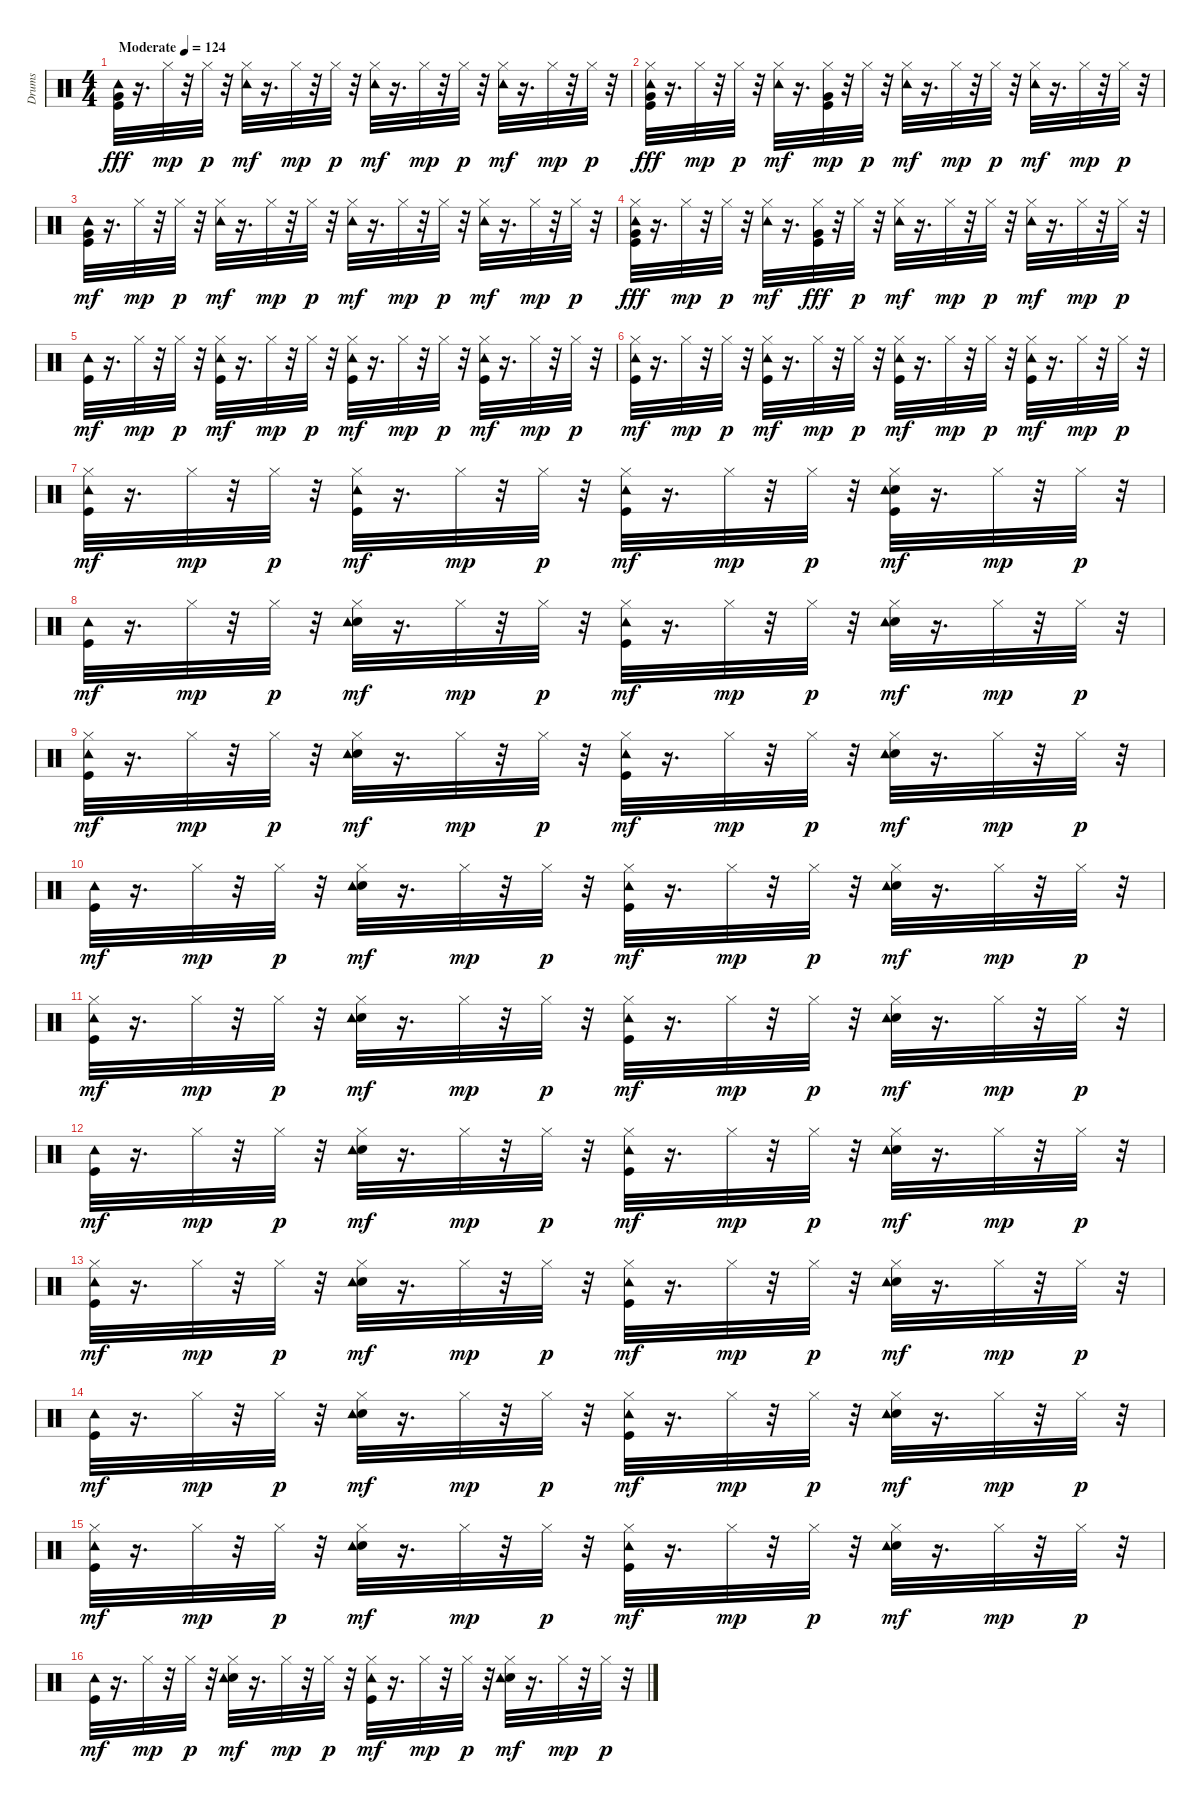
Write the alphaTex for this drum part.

\track ("Drums" "Drums") {instrument percussion}
\staff {score}
\articulation defaults
\ts (4 4)
\tempo (124 "Moderate")
\clef neutral
\ks c
("Very Low Tom (hit)" "Tambourine (hit)" "Kick (hit)").32{dy fff} r.16{d} "Hi-Hat (closed)".32{dy mp} r.32 "Hi-Hat (closed)".32{dy p} r.32 ("Tambourine (hit)" "Hi-Hat (closed)").32{dy mf} r.16{d} "Hi-Hat (closed)".32{dy mp} r.32 "Hi-Hat (closed)".32{dy p} r.32 ("Tambourine (hit)" "Hi-Hat (closed)").32{dy mf} r.16{d} "Hi-Hat (closed)".32{dy mp} r.32 "Hi-Hat (closed)".32{dy p} r.32 ("Hi-Hat (closed)" "Tambourine (hit)").32{dy mf} r.16{d} "Hi-Hat (closed)".32{dy mp} r.32 "Hi-Hat (closed)".32{dy p} r.32 |
("Very Low Tom (hit)" "Tambourine (hit)" "Hi-Hat (closed)" "Kick (hit)").32{dy fff} r.16{d} "Hi-Hat (closed)".32{dy mp} r.32 "Hi-Hat (closed)".32{dy p} r.32 ("Tambourine (hit)" "Hi-Hat (closed)").32{dy mf} r.16{d} ("Kick (hit)" "Very Low Tom (hit)" "Hi-Hat (closed)").32{dy mp} r.32 "Hi-Hat (closed)".32{dy p} r.32 ("Tambourine (hit)" "Hi-Hat (closed)").32{dy mf} r.16{d} "Hi-Hat (closed)".32{dy mp} r.32 "Hi-Hat (closed)".32{dy p} r.32 ("Tambourine (hit)" "Hi-Hat (closed)").32{dy mf} r.16{d} "Hi-Hat (closed)".32{dy mp} r.32 "Hi-Hat (closed)".32{dy p} r.32 |
("Kick (hit)" "Very Low Tom (hit)" "Tambourine (hit)").32{dy mf} r.16{d} "Hi-Hat (closed)".32{dy mp} r.32 "Hi-Hat (closed)".32{dy p} r.32 ("Tambourine (hit)" "Hi-Hat (closed)").32{dy mf} r.16{d} "Hi-Hat (closed)".32{dy mp} r.32 "Hi-Hat (closed)".32{dy p} r.32 ("Tambourine (hit)" "Hi-Hat (closed)").32{dy mf} r.16{d} "Hi-Hat (closed)".32{dy mp} r.32 "Hi-Hat (closed)".32{dy p} r.32 ("Tambourine (hit)" "Hi-Hat (closed)").32{dy mf} r.16{d} "Hi-Hat (closed)".32{dy mp} r.32 "Hi-Hat (closed)".32{dy p} r.32 |
("Very Low Tom (hit)" "Tambourine (hit)" "Hi-Hat (closed)" "Kick (hit)").32{dy fff} r.16{d} "Hi-Hat (closed)".32{dy mp} r.32 "Hi-Hat (closed)".32{dy p} r.32 ("Tambourine (hit)" "Hi-Hat (closed)").32{dy mf} r.16{d} ("Very Low Tom (hit)" "Hi-Hat (closed)" "Kick (hit)").32{dy fff} r.32 "Hi-Hat (closed)".32{dy p} r.32 ("Tambourine (hit)" "Hi-Hat (closed)").32{dy mf} r.16{d} "Hi-Hat (closed)".32{dy mp} r.32 "Hi-Hat (closed)".32{dy p} r.32 ("Tambourine (hit)" "Hi-Hat (closed)").32{dy mf} r.16{d} "Hi-Hat (closed)".32{dy mp} r.32 "Hi-Hat (closed)".32{dy p} r.32 |
("Tambourine (hit)" "Kick (hit)").32{dy mf} r.16{d} "Hi-Hat (closed)".32{dy mp} r.32 "Hi-Hat (closed)".32{dy p} r.32 ("Tambourine (hit)" "Kick (hit)" "Hi-Hat (closed)").32{dy mf} r.16{d} "Hi-Hat (closed)".32{dy mp} r.32 "Hi-Hat (closed)".32{dy p} r.32 ("Kick (hit)" "Tambourine (hit)" "Hi-Hat (closed)").32{dy mf} r.16{d} "Hi-Hat (closed)".32{dy mp} r.32 "Hi-Hat (closed)".32{dy p} r.32 ("Kick (hit)" "Tambourine (hit)" "Hi-Hat (closed)").32{dy mf} r.16{d} "Hi-Hat (closed)".32{dy mp} r.32 "Hi-Hat (closed)".32{dy p} r.32 |
("Tambourine (hit)" "Hi-Hat (closed)" "Kick (hit)").32{dy mf} r.16{d} "Hi-Hat (closed)".32{dy mp} r.32 "Hi-Hat (closed)".32{dy p} r.32 ("Kick (hit)" "Tambourine (hit)" "Hi-Hat (closed)").32{dy mf} r.16{d} "Hi-Hat (closed)".32{dy mp} r.32 "Hi-Hat (closed)".32{dy p} r.32 ("Hi-Hat (closed)" "Kick (hit)" "Tambourine (hit)").32{dy mf} r.16{d} "Hi-Hat (closed)".32{dy mp} r.32 "Hi-Hat (closed)".32{dy p} r.32 ("Kick (hit)" "Tambourine (hit)" "Hi-Hat (closed)").32{dy mf} r.16{d} "Hi-Hat (closed)".32{dy mp} r.32 "Hi-Hat (closed)".32{dy p} r.32 |
("Tambourine (hit)" "Hi-Hat (closed)" "Kick (hit)").32{dy mf} r.16{d} "Hi-Hat (closed)".32{dy mp} r.32 "Hi-Hat (closed)".32{dy p} r.32 ("Kick (hit)" "Tambourine (hit)" "Hi-Hat (closed)").32{dy mf} r.16{d} "Hi-Hat (closed)".32{dy mp} r.32 "Hi-Hat (closed)".32{dy p} r.32 ("Kick (hit)" "Tambourine (hit)" "Hi-Hat (closed)").32{dy mf} r.16{d} "Hi-Hat (closed)".32{dy mp} r.32 "Hi-Hat (closed)".32{dy p} r.32 ("Hi-Hat (closed)" "Snare (hit) 2" "Kick (hit)" "Tambourine (hit)").32{dy mf} r.16{d} "Hi-Hat (closed)".32{dy mp} r.32 "Hi-Hat (closed)".32{dy p} r.32 |
("Tambourine (hit)" "Kick (hit)").32{dy mf} r.16{d} "Hi-Hat (closed)".32{dy mp} r.32 "Hi-Hat (closed)".32{dy p} r.32 ("Snare (hit) 2" "Tambourine (hit)" "Hi-Hat (closed)").32{dy mf} r.16{d} "Hi-Hat (closed)".32{dy mp} r.32 "Hi-Hat (closed)".32{dy p} r.32 ("Tambourine (hit)" "Kick (hit)" "Hi-Hat (closed)").32{dy mf} r.16{d} "Hi-Hat (closed)".32{dy mp} r.32 "Hi-Hat (closed)".32{dy p} r.32 ("Snare (hit) 2" "Tambourine (hit)" "Hi-Hat (closed)").32{dy mf} r.16{d} "Hi-Hat (closed)".32{dy mp} r.32 "Hi-Hat (closed)".32{dy p} r.32 |
("Tambourine (hit)" "Hi-Hat (closed)" "Kick (hit)").32{dy mf} r.16{d} "Hi-Hat (closed)".32{dy mp} r.32 "Hi-Hat (closed)".32{dy p} r.32 ("Snare (hit) 2" "Tambourine (hit)" "Hi-Hat (closed)").32{dy mf} r.16{d} "Hi-Hat (closed)".32{dy mp} r.32 "Hi-Hat (closed)".32{dy p} r.32 ("Kick (hit)" "Tambourine (hit)" "Hi-Hat (closed)").32{dy mf} r.16{d} "Hi-Hat (closed)".32{dy mp} r.32 "Hi-Hat (closed)".32{dy p} r.32 ("Hi-Hat (closed)" "Snare (hit) 2" "Tambourine (hit)").32{dy mf} r.16{d} "Hi-Hat (closed)".32{dy mp} r.32 "Hi-Hat (closed)".32{dy p} r.32 |
("Tambourine (hit)" "Kick (hit)").32{dy mf} r.16{d} "Hi-Hat (closed)".32{dy mp} r.32 "Hi-Hat (closed)".32{dy p} r.32 ("Snare (hit) 2" "Tambourine (hit)" "Hi-Hat (closed)").32{dy mf} r.16{d} "Hi-Hat (closed)".32{dy mp} r.32 "Hi-Hat (closed)".32{dy p} r.32 ("Tambourine (hit)" "Kick (hit)" "Hi-Hat (closed)").32{dy mf} r.16{d} "Hi-Hat (closed)".32{dy mp} r.32 "Hi-Hat (closed)".32{dy p} r.32 ("Snare (hit) 2" "Tambourine (hit)" "Hi-Hat (closed)").32{dy mf} r.16{d} "Hi-Hat (closed)".32{dy mp} r.32 "Hi-Hat (closed)".32{dy p} r.32 |
("Tambourine (hit)" "Kick (hit)" "Hi-Hat (closed)").32{dy mf} r.16{d} "Hi-Hat (closed)".32{dy mp} r.32 "Hi-Hat (closed)".32{dy p} r.32 ("Snare (hit) 2" "Tambourine (hit)" "Hi-Hat (closed)").32{dy mf} r.16{d} "Hi-Hat (closed)".32{dy mp} r.32 "Hi-Hat (closed)".32{dy p} r.32 ("Kick (hit)" "Tambourine (hit)" "Hi-Hat (closed)").32{dy mf} r.16{d} "Hi-Hat (closed)".32{dy mp} r.32 "Hi-Hat (closed)".32{dy p} r.32 ("Hi-Hat (closed)" "Snare (hit) 2" "Tambourine (hit)").32{dy mf} r.16{d} "Hi-Hat (closed)".32{dy mp} r.32 "Hi-Hat (closed)".32{dy p} r.32 |
("Tambourine (hit)" "Kick (hit)").32{dy mf} r.16{d} "Hi-Hat (closed)".32{dy mp} r.32 "Hi-Hat (closed)".32{dy p} r.32 ("Snare (hit) 2" "Tambourine (hit)" "Hi-Hat (closed)").32{dy mf} r.16{d} "Hi-Hat (closed)".32{dy mp} r.32 "Hi-Hat (closed)".32{dy p} r.32 ("Hi-Hat (closed)" "Kick (hit)" "Tambourine (hit)").32{dy mf} r.16{d} "Hi-Hat (closed)".32{dy mp} r.32 "Hi-Hat (closed)".32{dy p} r.32 ("Snare (hit) 2" "Tambourine (hit)" "Hi-Hat (closed)").32{dy mf} r.16{d} "Hi-Hat (closed)".32{dy mp} r.32 "Hi-Hat (closed)".32{dy p} r.32 |
("Tambourine (hit)" "Hi-Hat (closed)" "Kick (hit)").32{dy mf} r.16{d} "Hi-Hat (closed)".32{dy mp} r.32 "Hi-Hat (closed)".32{dy p} r.32 ("Snare (hit) 2" "Tambourine (hit)" "Hi-Hat (closed)").32{dy mf} r.16{d} "Hi-Hat (closed)".32{dy mp} r.32 "Hi-Hat (closed)".32{dy p} r.32 ("Kick (hit)" "Tambourine (hit)" "Hi-Hat (closed)").32{dy mf} r.16{d} "Hi-Hat (closed)".32{dy mp} r.32 "Hi-Hat (closed)".32{dy p} r.32 ("Hi-Hat (closed)" "Snare (hit) 2" "Tambourine (hit)").32{dy mf} r.16{d} "Hi-Hat (closed)".32{dy mp} r.32 "Hi-Hat (closed)".32{dy p} r.32 |
("Tambourine (hit)" "Kick (hit)").32{dy mf} r.16{d} "Hi-Hat (closed)".32{dy mp} r.32 "Hi-Hat (closed)".32{dy p} r.32 ("Snare (hit) 2" "Tambourine (hit)" "Hi-Hat (closed)").32{dy mf} r.16{d} "Hi-Hat (closed)".32{dy mp} r.32 "Hi-Hat (closed)".32{dy p} r.32 ("Hi-Hat (closed)" "Kick (hit)" "Tambourine (hit)").32{dy mf} r.16{d} "Hi-Hat (closed)".32{dy mp} r.32 "Hi-Hat (closed)".32{dy p} r.32 ("Snare (hit) 2" "Tambourine (hit)" "Hi-Hat (closed)").32{dy mf} r.16{d} "Hi-Hat (closed)".32{dy mp} r.32 "Hi-Hat (closed)".32{dy p} r.32 |
("Tambourine (hit)" "Hi-Hat (closed)" "Kick (hit)").32{dy mf} r.16{d} "Hi-Hat (closed)".32{dy mp} r.32 "Hi-Hat (closed)".32{dy p} r.32 ("Snare (hit) 2" "Tambourine (hit)" "Hi-Hat (closed)").32{dy mf} r.16{d} "Hi-Hat (closed)".32{dy mp} r.32 "Hi-Hat (closed)".32{dy p} r.32 ("Kick (hit)" "Tambourine (hit)" "Hi-Hat (closed)").32{dy mf} r.16{d} "Hi-Hat (closed)".32{dy mp} r.32 "Hi-Hat (closed)".32{dy p} r.32 ("Hi-Hat (closed)" "Snare (hit) 2" "Tambourine (hit)").32{dy mf} r.16{d} "Hi-Hat (closed)".32{dy mp} r.32 "Hi-Hat (closed)".32{dy p} r.32 |
("Tambourine (hit)" "Kick (hit)").32{dy mf} r.16{d} "Hi-Hat (closed)".32{dy mp} r.32 "Hi-Hat (closed)".32{dy p} r.32 ("Snare (hit) 2" "Tambourine (hit)" "Hi-Hat (closed)").32{dy mf} r.16{d} "Hi-Hat (closed)".32{dy mp} r.32 "Hi-Hat (closed)".32{dy p} r.32 ("Hi-Hat (closed)" "Kick (hit)" "Tambourine (hit)").32{dy mf} r.16{d} "Hi-Hat (closed)".32{dy mp} r.32 "Hi-Hat (closed)".32{dy p} r.32 ("Snare (hit) 2" "Tambourine (hit)" "Hi-Hat (closed)").32{dy mf} r.16{d} "Hi-Hat (closed)".32{dy mp} r.32 "Hi-Hat (closed)".32{dy p} r.32
